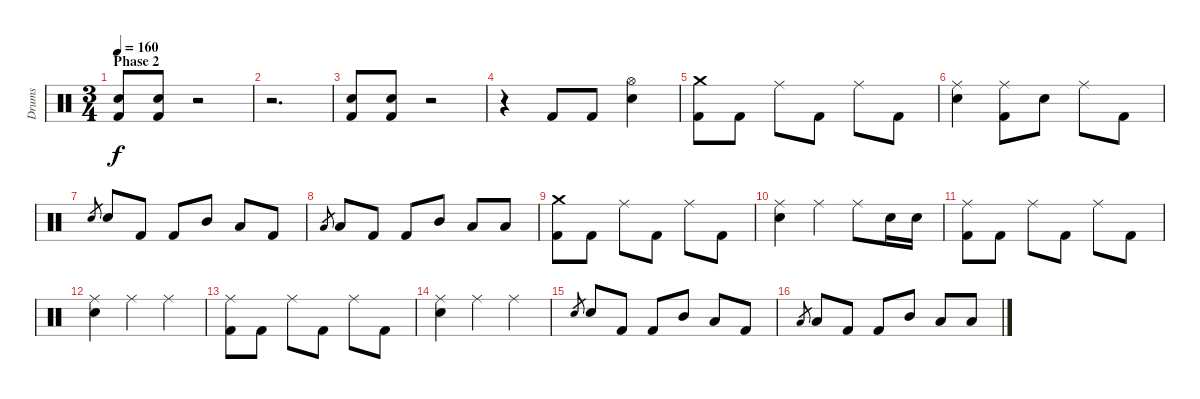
\track ("Drums" "Drums") {instrument percussion}
\staff {score}
\articulation defaults
\ts (3 4)
\section ("" "Phase 2")
\tempo 160
\clef neutral
\ks c
("Snare (hit) 2" "Kick (hit) 2").8{dy f} ("Snare (hit) 2" "Kick (hit) 2").8 r.2 |
r.2{d} |
("Snare (hit) 2" "Kick (hit) 2").8 ("Snare (hit) 2" "Kick (hit) 2").8 r.2 |
r.4 "Kick (hit) 2".8 "Kick (hit) 2".8 ("Hi-Hat (open)" "Snare (hit) 2").4 |
("Crash medium (hit)" "Kick (hit) 2").8 "Kick (hit) 2".8 "Ride (middle)".8 "Kick (hit) 2".8 "Ride (middle)".8 "Kick (hit) 2".8 |
("Ride (middle)" "Snare (hit) 2").4 ("Ride (middle)" "Kick (hit) 2").8 "Snare (hit) 2".8 "Ride (middle)".8 "Kick (hit) 2".8 |
"Snare (hit) 2".8{gr} "Snare (hit) 2".8 "Kick (hit) 2".8 "Kick (hit) 2".8 "Mid Tom (hit)".8 "Low Tom (hit)".8 "Kick (hit) 2".8 |
"Low Tom (hit)".8{gr} "Low Tom (hit)".8 "Kick (hit) 2".8 "Kick (hit) 2".8 "Mid Tom (hit)".8 "Low Tom (hit)".8 "Low Floor Tom (hit)".8 |
("Crash medium (hit)" "Kick (hit) 2").8 "Kick (hit) 2".8 "Ride (middle)".8 "Kick (hit) 2".8 "Ride (middle)".8 "Kick (hit) 2".8 |
("Ride (middle)" "Snare (hit) 2").4 "Ride (middle)".4 "Ride (middle)".8 "Snare (hit) 2".16 "Snare (hit) 2".16 |
("Ride (middle)" "Kick (hit) 2").8 "Kick (hit) 2".8 "Ride (middle)".8 "Kick (hit) 2".8 "Ride (middle)".8 "Kick (hit) 2".8 |
("Ride (middle)" "Snare (hit) 2").4 "Ride (middle)".4 "Ride (middle)".4 |
("Ride (middle)" "Kick (hit) 2").8 "Kick (hit) 2".8 "Ride (middle)".8 "Kick (hit) 2".8 "Ride (middle)".8 "Kick (hit) 2".8 |
("Ride (middle)" "Snare (hit) 2").4 "Ride (middle)".4 "Ride (middle)".4 |
"Snare (hit) 2".8{gr} "Snare (hit) 2".8 "Kick (hit) 2".8 "Kick (hit) 2".8 "Mid Tom (hit)".8 "Low Tom (hit)".8 "Kick (hit) 2".8 |
"Low Tom (hit)".8{gr} "Low Tom (hit)".8 "Kick (hit) 2".8 "Kick (hit) 2".8 "Mid Tom (hit)".8 "Low Tom (hit)".8 "Low Floor Tom (hit)".8
